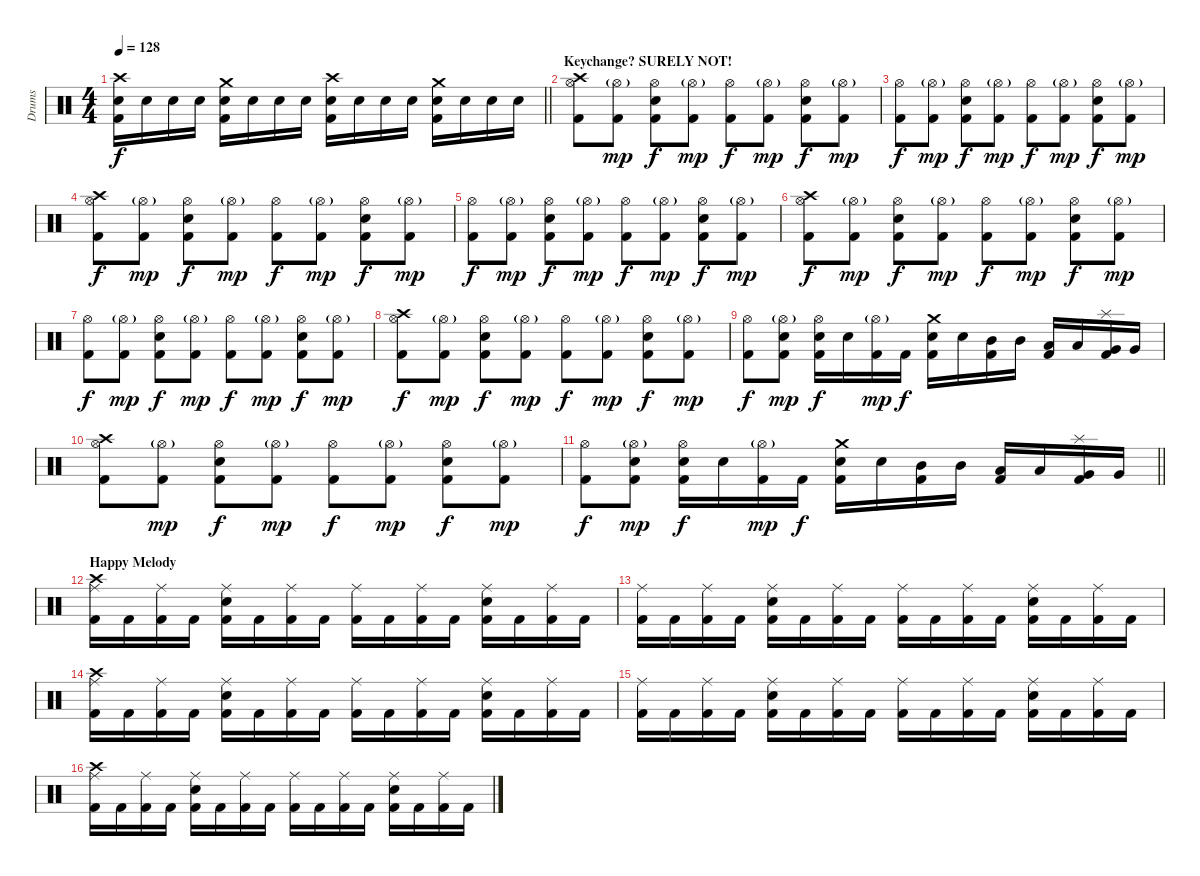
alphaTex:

\track ("Drums" "Drums") {instrument percussion}
\staff {score}
\articulation defaults
\ts (4 4)
\tempo 128
\clef neutral
\barLineRight lightlight
\ks c
("Crash high (hit)" "Snare (hit) 2" "Kick (hit) 2").16{dy f} "Snare (hit) 2".16 "Snare (hit) 2".16 "Snare (hit) 2".16 ("Crash medium (hit)" "Snare (hit) 2" "Kick (hit) 2").16 "Snare (hit) 2".16 "Snare (hit) 2".16 "Snare (hit) 2".16 ("Crash high (hit)" "Snare (hit) 2" "Kick (hit) 2").16 "Snare (hit) 2".16 "Snare (hit) 2".16 "Snare (hit) 2".16 ("Crash medium (hit)" "Snare (hit) 2" "Kick (hit) 2").16 "Snare (hit) 2".16 "Snare (hit) 2".16 "Snare (hit) 2".16 |
\section ("" "Keychange? SURELY NOT!")
("Crash high (hit)" "Hi-Hat (open)" "Kick (hit) 2").8 ("Hi-Hat (open)"{g} "Kick (hit) 2").8{dy mp} ("Hi-Hat (open)" "Snare (hit) 2" "Kick (hit) 2").8{dy f} ("Hi-Hat (open)"{g} "Kick (hit) 2").8{dy mp} ("Hi-Hat (open)" "Kick (hit) 2").8{dy f} ("Hi-Hat (open)"{g} "Kick (hit) 2").8{dy mp} ("Hi-Hat (open)" "Snare (hit) 2" "Kick (hit) 2").8{dy f} ("Hi-Hat (open)"{g} "Kick (hit) 2").8{dy mp} |
("Hi-Hat (open)" "Kick (hit) 2").8{dy f} ("Hi-Hat (open)"{g} "Kick (hit) 2").8{dy mp} ("Hi-Hat (open)" "Snare (hit) 2" "Kick (hit) 2").8{dy f} ("Hi-Hat (open)"{g} "Kick (hit) 2").8{dy mp} ("Hi-Hat (open)" "Kick (hit) 2").8{dy f} ("Hi-Hat (open)"{g} "Kick (hit) 2").8{dy mp} ("Hi-Hat (open)" "Snare (hit) 2" "Kick (hit) 2").8{dy f} ("Hi-Hat (open)"{g} "Kick (hit) 2").8{dy mp} |
("Crash high (hit)" "Hi-Hat (open)" "Kick (hit) 2").8{dy f} ("Hi-Hat (open)"{g} "Kick (hit) 2").8{dy mp} ("Hi-Hat (open)" "Snare (hit) 2" "Kick (hit) 2").8{dy f} ("Hi-Hat (open)"{g} "Kick (hit) 2").8{dy mp} ("Hi-Hat (open)" "Kick (hit) 2").8{dy f} ("Hi-Hat (open)"{g} "Kick (hit) 2").8{dy mp} ("Hi-Hat (open)" "Snare (hit) 2" "Kick (hit) 2").8{dy f} ("Hi-Hat (open)"{g} "Kick (hit) 2").8{dy mp} |
("Hi-Hat (open)" "Kick (hit) 2").8{dy f} ("Hi-Hat (open)"{g} "Kick (hit) 2").8{dy mp} ("Hi-Hat (open)" "Snare (hit) 2" "Kick (hit) 2").8{dy f} ("Hi-Hat (open)"{g} "Kick (hit) 2").8{dy mp} ("Hi-Hat (open)" "Kick (hit) 2").8{dy f} ("Hi-Hat (open)"{g} "Kick (hit) 2").8{dy mp} ("Hi-Hat (open)" "Snare (hit) 2" "Kick (hit) 2").8{dy f} ("Hi-Hat (open)"{g} "Kick (hit) 2").8{dy mp} |
("Crash high (hit)" "Hi-Hat (open)" "Kick (hit) 2").8{dy f} ("Hi-Hat (open)"{g} "Kick (hit) 2").8{dy mp} ("Hi-Hat (open)" "Snare (hit) 2" "Kick (hit) 2").8{dy f} ("Hi-Hat (open)"{g} "Kick (hit) 2").8{dy mp} ("Hi-Hat (open)" "Kick (hit) 2").8{dy f} ("Hi-Hat (open)"{g} "Kick (hit) 2").8{dy mp} ("Hi-Hat (open)" "Snare (hit) 2" "Kick (hit) 2").8{dy f} ("Hi-Hat (open)"{g} "Kick (hit) 2").8{dy mp} |
("Hi-Hat (open)" "Kick (hit) 2").8{dy f} ("Hi-Hat (open)"{g} "Kick (hit) 2").8{dy mp} ("Hi-Hat (open)" "Snare (hit) 2" "Kick (hit) 2").8{dy f} ("Hi-Hat (open)"{g} "Kick (hit) 2").8{dy mp} ("Hi-Hat (open)" "Kick (hit) 2").8{dy f} ("Hi-Hat (open)"{g} "Kick (hit) 2").8{dy mp} ("Hi-Hat (open)" "Snare (hit) 2" "Kick (hit) 2").8{dy f} ("Hi-Hat (open)"{g} "Kick (hit) 2").8{dy mp} |
("Crash high (hit)" "Hi-Hat (open)" "Kick (hit) 2").8{dy f} ("Hi-Hat (open)"{g} "Kick (hit) 2").8{dy mp} ("Hi-Hat (open)" "Snare (hit) 2" "Kick (hit) 2").8{dy f} ("Hi-Hat (open)"{g} "Kick (hit) 2").8{dy mp} ("Hi-Hat (open)" "Kick (hit) 2").8{dy f} ("Hi-Hat (open)"{g} "Kick (hit) 2").8{dy mp} ("Hi-Hat (open)" "Snare (hit) 2" "Kick (hit) 2").8{dy f} ("Hi-Hat (open)"{g} "Kick (hit) 2").8{dy mp} |
("Hi-Hat (open)" "Kick (hit) 2").8{dy f} ("Hi-Hat (open)"{g} "Snare (hit) 2" "Kick (hit) 2").8{dy mp} ("Hi-Hat (open)" "Snare (hit) 2" "Kick (hit) 2").16{dy f} "Snare (hit) 2".16 ("Hi-Hat (open)"{g} "Kick (hit) 2").16{dy mp} "Kick (hit) 2".16{dy f} ("Crash medium (hit)" "Snare (hit) 2" "Kick (hit) 2").16 "Snare (hit) 2".16 ("Mid Tom (hit)" "Kick (hit) 2").16 "Mid Tom (hit)".16 ("Low Tom (hit)" "Kick (hit) 2").16 "Low Tom (hit)".16 ("Splash (hit)" "Very Low Tom (hit)" "Kick (hit) 2").16 "Very Low Tom (hit)".16 |
("Crash high (hit)" "Hi-Hat (open)" "Kick (hit) 2").8 ("Hi-Hat (open)"{g} "Kick (hit) 2").8{dy mp} ("Hi-Hat (open)" "Snare (hit) 2" "Kick (hit) 2").8{dy f} ("Hi-Hat (open)"{g} "Kick (hit) 2").8{dy mp} ("Hi-Hat (open)" "Kick (hit) 2").8{dy f} ("Hi-Hat (open)"{g} "Kick (hit) 2").8{dy mp} ("Hi-Hat (open)" "Snare (hit) 2" "Kick (hit) 2").8{dy f} ("Hi-Hat (open)"{g} "Kick (hit) 2").8{dy mp} |
\barLineRight lightlight
("Hi-Hat (open)" "Kick (hit) 2").8{dy f} ("Hi-Hat (open)"{g} "Snare (hit) 2" "Kick (hit) 2").8{dy mp} ("Hi-Hat (open)" "Snare (hit) 2" "Kick (hit) 2").16{dy f} "Snare (hit) 2".16 ("Hi-Hat (open)"{g} "Kick (hit) 2").16{dy mp} "Kick (hit) 2".16{dy f} ("Crash medium (hit)" "Snare (hit) 2" "Kick (hit) 2").16 "Snare (hit) 2".16 ("Mid Tom (hit)" "Kick (hit) 2").16 "Mid Tom (hit)".16 ("Low Tom (hit)" "Kick (hit) 2").16 "Low Tom (hit)".16 ("Splash (hit)" "Very Low Tom (hit)" "Kick (hit) 2").16 "Very Low Tom (hit)".16 |
\section ("" "Happy Melody")
("Crash high (hit)" "Ride (middle)" "Kick (hit) 2").16 "Kick (hit) 2".16 ("Ride (middle)" "Kick (hit) 2").16 "Kick (hit) 2".16 ("Ride (middle)" "Snare (hit) 2" "Kick (hit) 2").16 "Kick (hit) 2".16 ("Ride (middle)" "Kick (hit) 2").16 "Kick (hit) 2".16 ("Ride (middle)" "Kick (hit) 2").16 "Kick (hit) 2".16 ("Ride (middle)" "Kick (hit) 2").16 "Kick (hit) 2".16 ("Ride (middle)" "Snare (hit) 2" "Kick (hit) 2").16 "Kick (hit) 2".16 ("Ride (middle)" "Kick (hit) 2").16 "Kick (hit) 2".16 |
("Ride (middle)" "Kick (hit) 2").16 "Kick (hit) 2".16 ("Ride (middle)" "Kick (hit) 2").16 "Kick (hit) 2".16 ("Ride (middle)" "Snare (hit) 2" "Kick (hit) 2").16 "Kick (hit) 2".16 ("Ride (middle)" "Kick (hit) 2").16 "Kick (hit) 2".16 ("Ride (middle)" "Kick (hit) 2").16 "Kick (hit) 2".16 ("Ride (middle)" "Kick (hit) 2").16 "Kick (hit) 2".16 ("Ride (middle)" "Snare (hit) 2" "Kick (hit) 2").16 "Kick (hit) 2".16 ("Ride (middle)" "Kick (hit) 2").16 "Kick (hit) 2".16 |
("Crash high (hit)" "Ride (middle)" "Kick (hit) 2").16 "Kick (hit) 2".16 ("Ride (middle)" "Kick (hit) 2").16 "Kick (hit) 2".16 ("Ride (middle)" "Snare (hit) 2" "Kick (hit) 2").16 "Kick (hit) 2".16 ("Ride (middle)" "Kick (hit) 2").16 "Kick (hit) 2".16 ("Ride (middle)" "Kick (hit) 2").16 "Kick (hit) 2".16 ("Ride (middle)" "Kick (hit) 2").16 "Kick (hit) 2".16 ("Ride (middle)" "Snare (hit) 2" "Kick (hit) 2").16 "Kick (hit) 2".16 ("Ride (middle)" "Kick (hit) 2").16 "Kick (hit) 2".16 |
("Ride (middle)" "Kick (hit) 2").16 "Kick (hit) 2".16 ("Ride (middle)" "Kick (hit) 2").16 "Kick (hit) 2".16 ("Ride (middle)" "Snare (hit) 2" "Kick (hit) 2").16 "Kick (hit) 2".16 ("Ride (middle)" "Kick (hit) 2").16 "Kick (hit) 2".16 ("Ride (middle)" "Kick (hit) 2").16 "Kick (hit) 2".16 ("Ride (middle)" "Kick (hit) 2").16 "Kick (hit) 2".16 ("Ride (middle)" "Snare (hit) 2" "Kick (hit) 2").16 "Kick (hit) 2".16 ("Ride (middle)" "Kick (hit) 2").16 "Kick (hit) 2".16 |
("Crash high (hit)" "Ride (middle)" "Kick (hit) 2").16 "Kick (hit) 2".16 ("Ride (middle)" "Kick (hit) 2").16 "Kick (hit) 2".16 ("Ride (middle)" "Snare (hit) 2" "Kick (hit) 2").16 "Kick (hit) 2".16 ("Ride (middle)" "Kick (hit) 2").16 "Kick (hit) 2".16 ("Ride (middle)" "Kick (hit) 2").16 "Kick (hit) 2".16 ("Ride (middle)" "Kick (hit) 2").16 "Kick (hit) 2".16 ("Ride (middle)" "Snare (hit) 2" "Kick (hit) 2").16 "Kick (hit) 2".16 ("Ride (middle)" "Kick (hit) 2").16 "Kick (hit) 2".16
